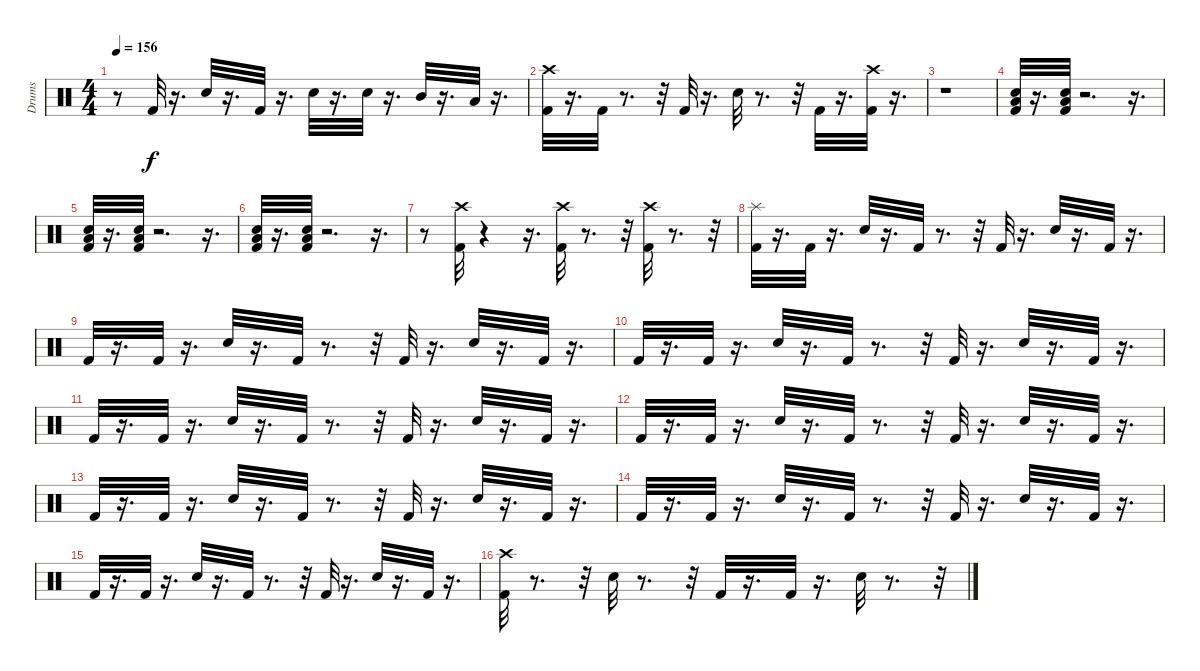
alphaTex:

\track ("Drums" "Drums") {instrument percussion}
\staff {score}
\articulation defaults
\ts (4 4)
\tempo 156
\clef neutral
\ks c
r.8{dy f} "Kick (hit) 2".32 r.16{d} "Snare (hit) 2".32 r.16{d} "Kick (hit) 2".32 r.16{d} "Snare (hit) 2".32 r.16{d} "Snare (hit) 2".32 r.16{d} "Mid Tom (hit)".32 r.16{d} "Low Tom (hit)".32 r.16{d} |
("Crash high (hit)" "Kick (hit) 2").32 r.16{d} "Kick (hit) 2".32 r.8{d} r.32 "Kick (hit) 2".32 r.16{d} "Snare (hit) 2".32 r.8{d} r.32 "Kick (hit) 2".32 r.16{d} ("Crash high (hit)" "Kick (hit) 2").32 r.16{d} |
r.1 |
("Low Floor Tom (hit)" "Snare (hit) 2" "Kick (hit) 2").32 r.16{d} ("Low Floor Tom (hit)" "Snare (hit) 2" "Kick (hit) 2").32 r.2{d} r.16{d} |
("Snare (hit) 2" "Kick (hit) 2" "Low Floor Tom (hit)").32 r.16{d} ("Kick (hit) 2" "Snare (hit) 2" "Low Floor Tom (hit)").32 r.2{d} r.16{d} |
("Snare (hit) 2" "Kick (hit) 2" "Low Floor Tom (hit)").32 r.16{d} ("Kick (hit) 2" "Snare (hit) 2" "Low Floor Tom (hit)").32 r.2{d} r.16{d} |
r.8 ("Kick (hit) 2" "Crash high (hit)").32 r.4 r.16{d} ("Crash high (hit)" "Kick (hit) 2").32 r.8{d} r.32 ("Kick (hit) 2" "Crash high (hit)").32 r.8{d} r.32 |
("Kick (hit) 2" "Splash (hit)").32 r.16{d} "Kick (hit) 2".32 r.16{d} "Snare (hit) 2".32 r.16{d} "Kick (hit) 2".32 r.8{d} r.32 "Kick (hit) 2".32 r.16{d} "Snare (hit) 2".32 r.16{d} "Kick (hit) 2".32 r.16{d} |
"Kick (hit) 2".32 r.16{d} "Kick (hit) 2".32 r.16{d} "Snare (hit) 2".32 r.16{d} "Kick (hit) 2".32 r.8{d} r.32 "Kick (hit) 2".32 r.16{d} "Snare (hit) 2".32 r.16{d} "Kick (hit) 2".32 r.16{d} |
"Kick (hit) 2".32 r.16{d} "Kick (hit) 2".32 r.16{d} "Snare (hit) 2".32 r.16{d} "Kick (hit) 2".32 r.8{d} r.32 "Kick (hit) 2".32 r.16{d} "Snare (hit) 2".32 r.16{d} "Kick (hit) 2".32 r.16{d} |
"Kick (hit) 2".32 r.16{d} "Kick (hit) 2".32 r.16{d} "Snare (hit) 2".32 r.16{d} "Kick (hit) 2".32 r.8{d} r.32 "Kick (hit) 2".32 r.16{d} "Snare (hit) 2".32 r.16{d} "Kick (hit) 2".32 r.16{d} |
"Kick (hit) 2".32 r.16{d} "Kick (hit) 2".32 r.16{d} "Snare (hit) 2".32 r.16{d} "Kick (hit) 2".32 r.8{d} r.32 "Kick (hit) 2".32 r.16{d} "Snare (hit) 2".32 r.16{d} "Kick (hit) 2".32 r.16{d} |
"Kick (hit) 2".32 r.16{d} "Kick (hit) 2".32 r.16{d} "Snare (hit) 2".32 r.16{d} "Kick (hit) 2".32 r.8{d} r.32 "Kick (hit) 2".32 r.16{d} "Snare (hit) 2".32 r.16{d} "Kick (hit) 2".32 r.16{d} |
"Kick (hit) 2".32 r.16{d} "Kick (hit) 2".32 r.16{d} "Snare (hit) 2".32 r.16{d} "Kick (hit) 2".32 r.8{d} r.32 "Kick (hit) 2".32 r.16{d} "Snare (hit) 2".32 r.16{d} "Kick (hit) 2".32 r.16{d} |
"Kick (hit) 2".32 r.16{d} "Kick (hit) 2".32 r.16{d} "Snare (hit) 2".32 r.16{d} "Kick (hit) 2".32 r.8{d} r.32 "Kick (hit) 2".32 r.16{d} "Snare (hit) 2".32 r.16{d} "Kick (hit) 2".32 r.16{d} |
("Crash high (hit)" "Kick (hit) 2").32 r.8{d} r.32 "Snare (hit) 2".32 r.8{d} r.32 "Kick (hit) 2".32 r.16{d} "Kick (hit) 2".32 r.16{d} "Snare (hit) 2".32 r.8{d} r.32
